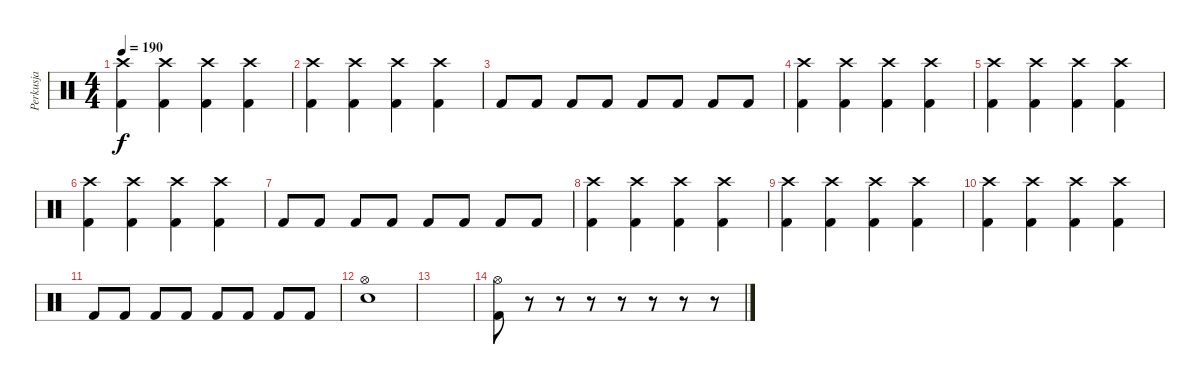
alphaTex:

\track ("Perkusja" "Perkusja") {instrument percussion}
\staff {score}
\articulation defaults
\ts (4 4)
\tempo 190
\clef neutral
\ks c
("Crash high (hit)" "Kick (hit) 2").4{dy f} ("Crash high (hit)" "Kick (hit) 2").4 ("Crash high (hit)" "Kick (hit) 2").4 ("Crash high (hit)" "Kick (hit) 2").4 |
("Crash high (hit)" "Kick (hit) 2").4 ("Crash high (hit)" "Kick (hit) 2").4 ("Crash high (hit)" "Kick (hit) 2").4 ("Crash high (hit)" "Kick (hit) 2").4 |
"Kick (hit) 2".8 "Kick (hit) 2".8 "Kick (hit) 2".8 "Kick (hit) 2".8 "Kick (hit) 2".8 "Kick (hit) 2".8 "Kick (hit) 2".8 "Kick (hit) 2".8 |
("Crash high (hit)" "Kick (hit) 2").4 ("Crash high (hit)" "Kick (hit) 2").4 ("Crash high (hit)" "Kick (hit) 2").4 ("Crash high (hit)" "Kick (hit) 2").4 |
("Crash high (hit)" "Kick (hit) 2").4 ("Crash high (hit)" "Kick (hit) 2").4 ("Crash high (hit)" "Kick (hit) 2").4 ("Crash high (hit)" "Kick (hit) 2").4 |
("Crash high (hit)" "Kick (hit) 2").4 ("Crash high (hit)" "Kick (hit) 2").4 ("Crash high (hit)" "Kick (hit) 2").4 ("Crash high (hit)" "Kick (hit) 2").4 |
"Kick (hit) 2".8 "Kick (hit) 2".8 "Kick (hit) 2".8 "Kick (hit) 2".8 "Kick (hit) 2".8 "Kick (hit) 2".8 "Kick (hit) 2".8 "Kick (hit) 2".8 |
("Crash high (hit)" "Kick (hit) 2").4 ("Crash high (hit)" "Kick (hit) 2").4 ("Crash high (hit)" "Kick (hit) 2").4 ("Crash high (hit)" "Kick (hit) 2").4 |
("Crash high (hit)" "Kick (hit) 2").4 ("Crash high (hit)" "Kick (hit) 2").4 ("Crash high (hit)" "Kick (hit) 2").4 ("Crash high (hit)" "Kick (hit) 2").4 |
("Crash high (hit)" "Kick (hit) 2").4 ("Crash high (hit)" "Kick (hit) 2").4 ("Crash high (hit)" "Kick (hit) 2").4 ("Crash high (hit)" "Kick (hit) 2").4 |
"Kick (hit) 2".8 "Kick (hit) 2".8 "Kick (hit) 2".8 "Kick (hit) 2".8 "Kick (hit) 2".8 "Kick (hit) 2".8 "Kick (hit) 2".8 "Kick (hit) 2".8 |
("Hi-Hat (open)" "Electric Snare (hit)").1 |
|
("Hi-Hat (open)" "Kick (hit) 2").8 r.8 r.8 r.8 r.8 r.8 r.8 r.8
